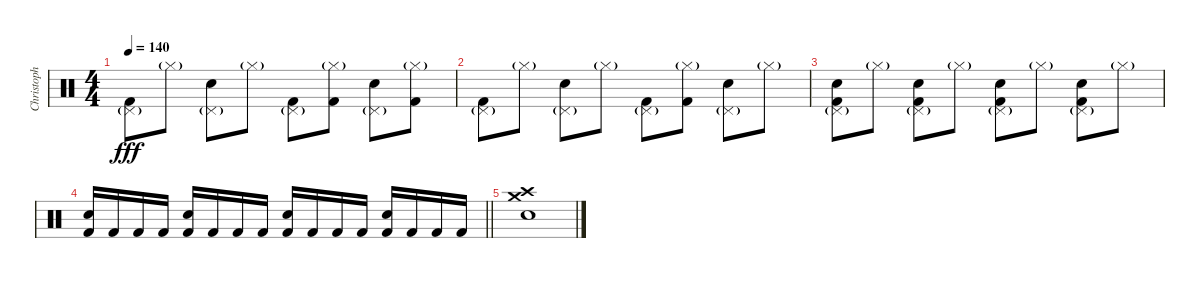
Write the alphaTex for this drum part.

\track ("Christoph" "Christoph") {instrument percussion}
\staff {score}
\articulation defaults
\ts (4 4)
\tempo 140
\clef neutral
\ks c
("Pedal Hi-Hat (hit)"{g} "Kick (hit) 2").8{dy fff} "Hi-Hat (closed)"{g}.8 ("Pedal Hi-Hat (hit)"{g} "Electric Snare (hit)").8 "Hi-Hat (closed)"{g}.8 ("Pedal Hi-Hat (hit)"{g} "Kick (hit) 2").8 ("Hi-Hat (closed)"{g} "Kick (hit) 2").8 ("Pedal Hi-Hat (hit)"{g} "Electric Snare (hit)").8 ("Hi-Hat (closed)"{g} "Kick (hit) 2").8 |
("Pedal Hi-Hat (hit)"{g} "Kick (hit) 2").8 "Hi-Hat (closed)"{g}.8 ("Pedal Hi-Hat (hit)"{g} "Electric Snare (hit)").8 "Hi-Hat (closed)"{g}.8 ("Pedal Hi-Hat (hit)"{g} "Kick (hit) 2").8 ("Hi-Hat (closed)"{g} "Kick (hit) 2").8 ("Pedal Hi-Hat (hit)"{g} "Electric Snare (hit)").8 "Hi-Hat (closed)"{g}.8 |
("Pedal Hi-Hat (hit)"{g} "Electric Snare (hit)" "Kick (hit) 2").8 "Hi-Hat (closed)"{g}.8 ("Pedal Hi-Hat (hit)"{g} "Electric Snare (hit)" "Kick (hit) 2").8 "Hi-Hat (closed)"{g}.8 ("Pedal Hi-Hat (hit)"{g} "Electric Snare (hit)" "Kick (hit) 2").8 "Hi-Hat (closed)"{g}.8 ("Pedal Hi-Hat (hit)"{g} "Electric Snare (hit)" "Kick (hit) 2").8 "Hi-Hat (closed)"{g}.8 |
\barLineRight lightlight
("Electric Snare (hit)" "Kick (hit) 2").16 "Kick (hit) 2".16 "Kick (hit) 2".16 "Kick (hit) 2".16 ("Electric Snare (hit)" "Kick (hit) 2").16 "Kick (hit) 2".16 "Kick (hit) 2".16 "Kick (hit) 2".16 ("Electric Snare (hit)" "Kick (hit) 2").16 "Kick (hit) 2".16 "Kick (hit) 2".16 "Kick (hit) 2".16 ("Electric Snare (hit)" "Kick (hit) 2").16 "Kick (hit) 2".16 "Kick (hit) 2".16 "Kick (hit) 2".16 |
("Crash high (hit)" "Crash medium (hit)" "Electric Snare (hit)").1
